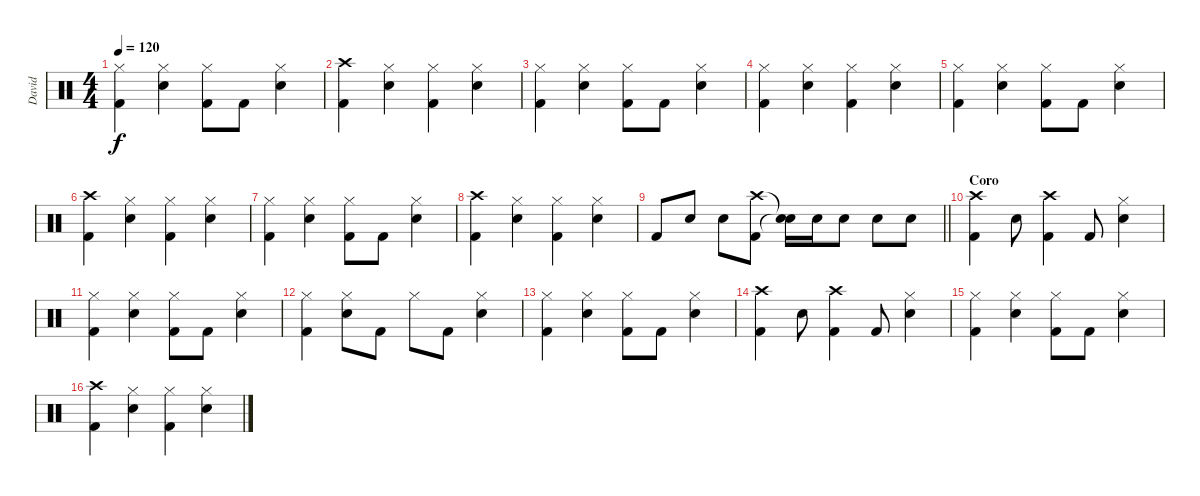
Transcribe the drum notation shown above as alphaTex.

\track ("David" "David") {instrument percussion}
\staff {score}
\articulation defaults
\ts (4 4)
\tempo 120
\clef neutral
\ks c
("Hi-Hat (closed)" "Kick (hit) 2").4{dy f} ("Hi-Hat (closed)" "Snare (hit) 2").4 ("Hi-Hat (closed)" "Kick (hit) 2").8 "Kick (hit) 2".8 ("Hi-Hat (closed)" "Snare (hit) 2").4 |
("Crash high (hit)" "Kick (hit) 2").4 ("Hi-Hat (closed)" "Snare (hit) 2").4 ("Hi-Hat (closed)" "Kick (hit) 2").4 ("Hi-Hat (closed)" "Snare (hit) 2").4 |
("Hi-Hat (closed)" "Kick (hit) 2").4 ("Hi-Hat (closed)" "Snare (hit) 2").4 ("Hi-Hat (closed)" "Kick (hit) 2").8 "Kick (hit) 2".8 ("Hi-Hat (closed)" "Snare (hit) 2").4 |
("Hi-Hat (closed)" "Kick (hit) 2").4 ("Hi-Hat (closed)" "Snare (hit) 2").4 ("Hi-Hat (closed)" "Kick (hit) 2").4 ("Hi-Hat (closed)" "Snare (hit) 2").4 |
("Hi-Hat (closed)" "Kick (hit) 2").4 ("Hi-Hat (closed)" "Snare (hit) 2").4 ("Hi-Hat (closed)" "Kick (hit) 2").8 "Kick (hit) 2".8 ("Hi-Hat (closed)" "Snare (hit) 2").4 |
("Crash high (hit)" "Kick (hit) 2").4 ("Hi-Hat (closed)" "Snare (hit) 2").4 ("Hi-Hat (closed)" "Kick (hit) 2").4 ("Hi-Hat (closed)" "Snare (hit) 2").4 |
("Hi-Hat (closed)" "Kick (hit) 2").4 ("Hi-Hat (closed)" "Snare (hit) 2").4 ("Hi-Hat (closed)" "Kick (hit) 2").8 "Kick (hit) 2".8 ("Hi-Hat (closed)" "Snare (hit) 2").4 |
("Crash high (hit)" "Kick (hit) 2").4 ("Hi-Hat (closed)" "Snare (hit) 2").4 ("Hi-Hat (closed)" "Kick (hit) 2").4 ("Hi-Hat (closed)" "Snare (hit) 2").4 |
\barLineRight lightlight "Kick (hit) 2".8 "Snare (hit) 2".8 "Snare (hit) 2".8
("Crash high (hit)" "Kick (hit) 2").8 ("Snare (hit)"{t} "Snare (hit)"{t}).16 "Snare (hit) 2".16 "Snare (hit) 2".8 "Snare (hit) 2".8 "Snare (hit) 2".8 |
\section ("" "Coro")
("Crash high (hit)" "Kick (hit) 2").4 "Snare (hit) 2".8 ("Crash high (hit)" "Kick (hit) 2").4 "Kick (hit) 2".8 ("Hi-Hat (closed)" "Snare (hit) 2").4 |
("Hi-Hat (closed)" "Kick (hit) 2").4 ("Hi-Hat (closed)" "Snare (hit) 2").4 ("Hi-Hat (closed)" "Kick (hit) 2").8 "Kick (hit) 2".8 ("Hi-Hat (closed)" "Snare (hit) 2").4 |
("Hi-Hat (closed)" "Kick (hit) 2").4 ("Hi-Hat (closed)" "Snare (hit) 2").8 "Kick (hit) 2".8 "Hi-Hat (closed)".8 "Kick (hit) 2".8 ("Hi-Hat (closed)" "Snare (hit) 2").4 |
("Hi-Hat (closed)" "Kick (hit) 2").4 ("Hi-Hat (closed)" "Snare (hit) 2").4 ("Hi-Hat (closed)" "Kick (hit) 2").8 "Kick (hit) 2".8 ("Hi-Hat (closed)" "Snare (hit) 2").4 |
("Crash high (hit)" "Kick (hit) 2").4 "Snare (hit) 2".8 ("Crash high (hit)" "Kick (hit) 2").4 "Kick (hit) 2".8 ("Hi-Hat (closed)" "Snare (hit) 2").4 |
("Hi-Hat (closed)" "Kick (hit) 2").4 ("Hi-Hat (closed)" "Snare (hit) 2").4 ("Hi-Hat (closed)" "Kick (hit) 2").8 "Kick (hit) 2".8 ("Hi-Hat (closed)" "Snare (hit) 2").4 |
("Crash high (hit)" "Kick (hit) 2").4 ("Hi-Hat (closed)" "Snare (hit) 2").4 ("Hi-Hat (closed)" "Kick (hit) 2").4 ("Hi-Hat (closed)" "Snare (hit) 2").4
